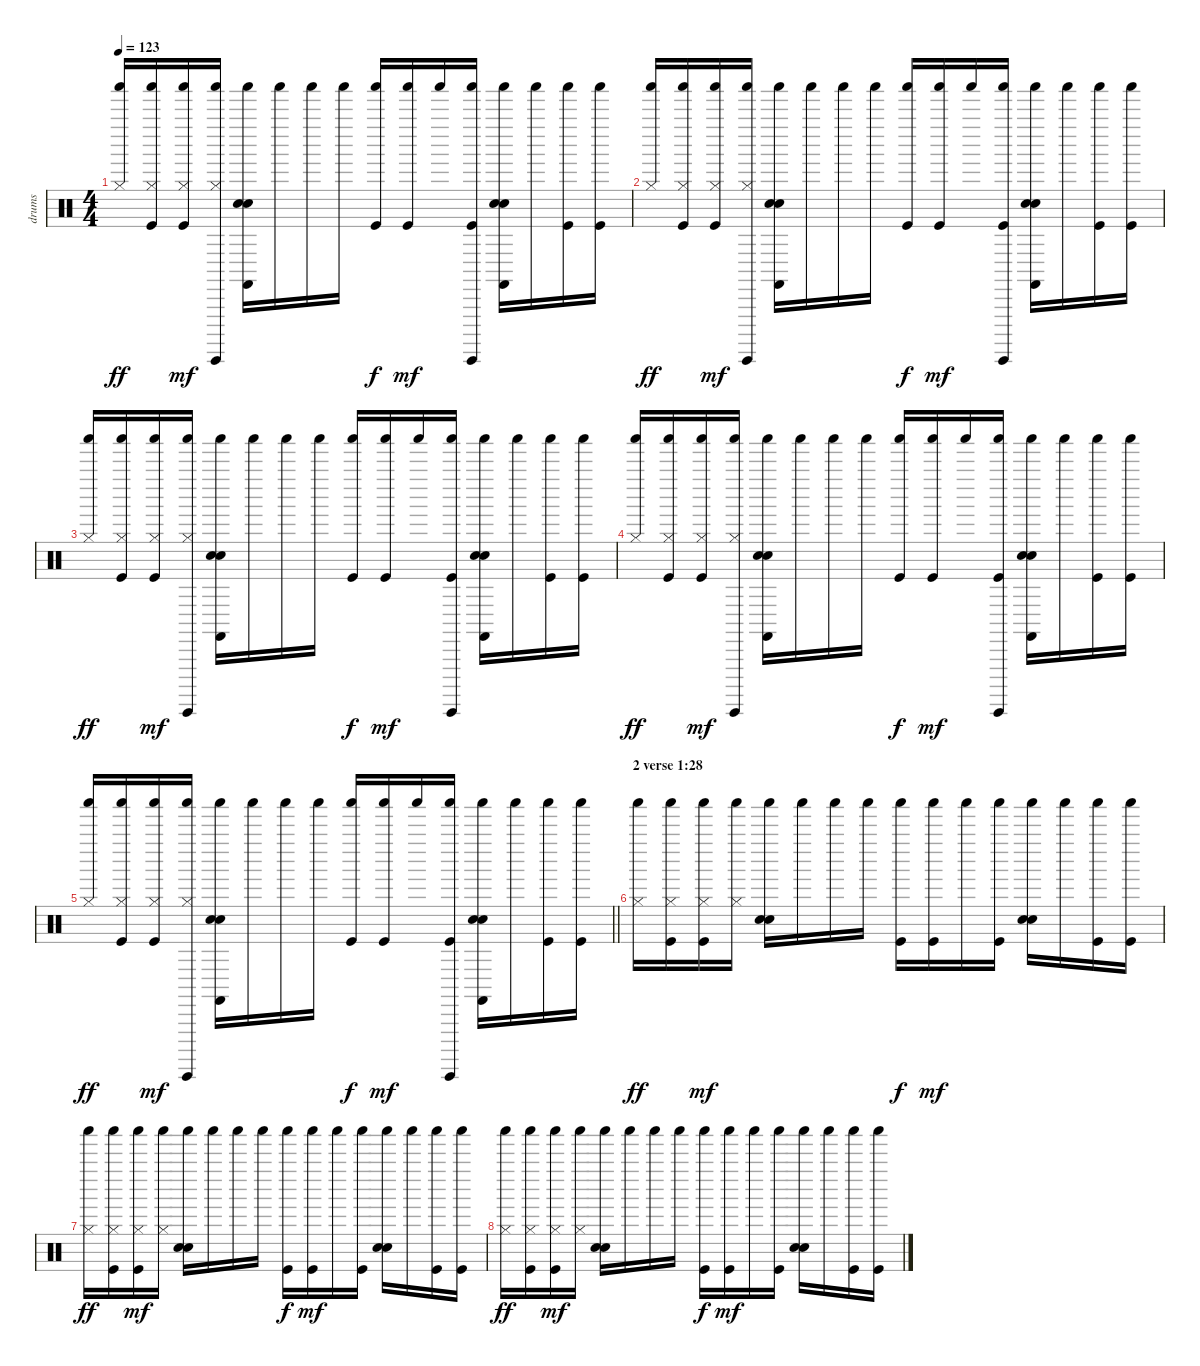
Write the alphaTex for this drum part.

\track ("drums" "drums") {instrument percussion}
\staff {score}
\articulation defaults
\ts (4 4)
\tempo 123
\clef neutral
\ks c
("Shaker (hit)" "Hi-Hat (closed)").16{dy ff} ("Shaker (hit)" "Hi-Hat (closed)" "Kick (hit)").16 ("Shaker (hit)" "Hi-Hat (closed)" "Kick (hit)").16{dy mf} ("Shaker (hit)" "Hi-Hat (closed)" "Guiro (hit)").16 ("Shaker (hit)" "Electric Snare (hit)" "Hand Clap (hit)" "Castanets (hit)").16 "Shaker (hit)".16 "Shaker (hit)".16 "Shaker (hit)".16 ("Shaker (hit)" "Kick (hit)").16{dy f} ("Shaker (hit)" "Kick (hit)").16{dy mf} "Shaker (hit)".16 ("Shaker (hit)" "Guiro (hit)" "Kick (hit)").16 ("Shaker (hit)" "Electric Snare (hit)" "Hand Clap (hit)" "Castanets (hit)").16 "Shaker (hit)".16 ("Shaker (hit)" "Kick (hit)").16 ("Shaker (hit)" "Kick (hit)").16 |
("Shaker (hit)" "Hi-Hat (closed)").16{dy ff} ("Shaker (hit)" "Hi-Hat (closed)" "Kick (hit)").16 ("Shaker (hit)" "Hi-Hat (closed)" "Kick (hit)").16{dy mf} ("Shaker (hit)" "Hi-Hat (closed)" "Guiro (hit)").16 ("Shaker (hit)" "Electric Snare (hit)" "Hand Clap (hit)" "Castanets (hit)").16 "Shaker (hit)".16 "Shaker (hit)".16 "Shaker (hit)".16 ("Shaker (hit)" "Kick (hit)").16{dy f} ("Shaker (hit)" "Kick (hit)").16{dy mf} "Shaker (hit)".16 ("Shaker (hit)" "Guiro (hit)" "Kick (hit)").16 ("Shaker (hit)" "Electric Snare (hit)" "Hand Clap (hit)" "Castanets (hit)").16 "Shaker (hit)".16 ("Shaker (hit)" "Kick (hit)").16 ("Shaker (hit)" "Kick (hit)").16 |
("Shaker (hit)" "Hi-Hat (closed)").16{dy ff} ("Shaker (hit)" "Hi-Hat (closed)" "Kick (hit)").16 ("Shaker (hit)" "Hi-Hat (closed)" "Kick (hit)").16{dy mf} ("Shaker (hit)" "Hi-Hat (closed)" "Guiro (hit)").16 ("Shaker (hit)" "Electric Snare (hit)" "Hand Clap (hit)" "Castanets (hit)").16 "Shaker (hit)".16 "Shaker (hit)".16 "Shaker (hit)".16 ("Shaker (hit)" "Kick (hit)").16{dy f} ("Shaker (hit)" "Kick (hit)").16{dy mf} "Shaker (hit)".16 ("Shaker (hit)" "Guiro (hit)" "Kick (hit)").16 ("Shaker (hit)" "Electric Snare (hit)" "Hand Clap (hit)" "Castanets (hit)").16 "Shaker (hit)".16 ("Shaker (hit)" "Kick (hit)").16 ("Shaker (hit)" "Kick (hit)").16 |
("Shaker (hit)" "Hi-Hat (closed)").16{dy ff} ("Shaker (hit)" "Hi-Hat (closed)" "Kick (hit)").16 ("Shaker (hit)" "Hi-Hat (closed)" "Kick (hit)").16{dy mf} ("Shaker (hit)" "Hi-Hat (closed)" "Guiro (hit)").16 ("Shaker (hit)" "Electric Snare (hit)" "Hand Clap (hit)" "Castanets (hit)").16 "Shaker (hit)".16 "Shaker (hit)".16 "Shaker (hit)".16 ("Shaker (hit)" "Kick (hit)").16{dy f} ("Shaker (hit)" "Kick (hit)").16{dy mf} "Shaker (hit)".16 ("Shaker (hit)" "Guiro (hit)" "Kick (hit)").16 ("Shaker (hit)" "Electric Snare (hit)" "Hand Clap (hit)" "Castanets (hit)").16 "Shaker (hit)".16 ("Shaker (hit)" "Kick (hit)").16 ("Shaker (hit)" "Kick (hit)").16 |
\barLineRight lightlight
("Shaker (hit)" "Hi-Hat (closed)").16{dy ff} ("Shaker (hit)" "Hi-Hat (closed)" "Kick (hit)").16 ("Shaker (hit)" "Hi-Hat (closed)" "Kick (hit)").16{dy mf} ("Shaker (hit)" "Hi-Hat (closed)" "Guiro (hit)").16 ("Shaker (hit)" "Electric Snare (hit)" "Hand Clap (hit)" "Castanets (hit)").16 "Shaker (hit)".16 "Shaker (hit)".16 "Shaker (hit)".16 ("Shaker (hit)" "Kick (hit)").16{dy f} ("Shaker (hit)" "Kick (hit)").16{dy mf} "Shaker (hit)".16 ("Shaker (hit)" "Guiro (hit)" "Kick (hit)").16 ("Shaker (hit)" "Electric Snare (hit)" "Hand Clap (hit)" "Castanets (hit)").16 "Shaker (hit)".16 ("Shaker (hit)" "Kick (hit)").16 ("Shaker (hit)" "Kick (hit)").16 |
\section ("" "2 verse 1:28")
("Shaker (hit)" "Hi-Hat (closed)").16{dy ff} ("Shaker (hit)" "Hi-Hat (closed)" "Kick (hit)").16 ("Shaker (hit)" "Hi-Hat (closed)" "Kick (hit)").16{dy mf} ("Shaker (hit)" "Hi-Hat (closed)").16 ("Shaker (hit)" "Electric Snare (hit)" "Hand Clap (hit)").16 "Shaker (hit)".16 "Shaker (hit)".16 "Shaker (hit)".16 ("Shaker (hit)" "Kick (hit)").16{dy f} ("Shaker (hit)" "Kick (hit)").16{dy mf} "Shaker (hit)".16 ("Shaker (hit)" "Kick (hit)").16 ("Shaker (hit)" "Electric Snare (hit)" "Hand Clap (hit)").16 "Shaker (hit)".16 ("Shaker (hit)" "Kick (hit)").16 ("Shaker (hit)" "Kick (hit)").16 |
("Shaker (hit)" "Hi-Hat (closed)").16{dy ff} ("Shaker (hit)" "Hi-Hat (closed)" "Kick (hit)").16 ("Shaker (hit)" "Hi-Hat (closed)" "Kick (hit)").16{dy mf} ("Shaker (hit)" "Hi-Hat (closed)").16 ("Shaker (hit)" "Electric Snare (hit)" "Hand Clap (hit)").16 "Shaker (hit)".16 "Shaker (hit)".16 "Shaker (hit)".16 ("Shaker (hit)" "Kick (hit)").16{dy f} ("Shaker (hit)" "Kick (hit)").16{dy mf} "Shaker (hit)".16 ("Shaker (hit)" "Kick (hit)").16 ("Shaker (hit)" "Electric Snare (hit)" "Hand Clap (hit)").16 "Shaker (hit)".16 ("Shaker (hit)" "Kick (hit)").16 ("Shaker (hit)" "Kick (hit)").16 |
("Shaker (hit)" "Hi-Hat (closed)").16{dy ff} ("Shaker (hit)" "Hi-Hat (closed)" "Kick (hit)").16 ("Shaker (hit)" "Hi-Hat (closed)" "Kick (hit)").16{dy mf} ("Shaker (hit)" "Hi-Hat (closed)").16 ("Shaker (hit)" "Electric Snare (hit)" "Hand Clap (hit)").16 "Shaker (hit)".16 "Shaker (hit)".16 "Shaker (hit)".16 ("Shaker (hit)" "Kick (hit)").16{dy f} ("Shaker (hit)" "Kick (hit)").16{dy mf} "Shaker (hit)".16 ("Shaker (hit)" "Kick (hit)").16 ("Shaker (hit)" "Electric Snare (hit)" "Hand Clap (hit)").16 "Shaker (hit)".16 ("Shaker (hit)" "Kick (hit)").16 ("Shaker (hit)" "Kick (hit)").16
